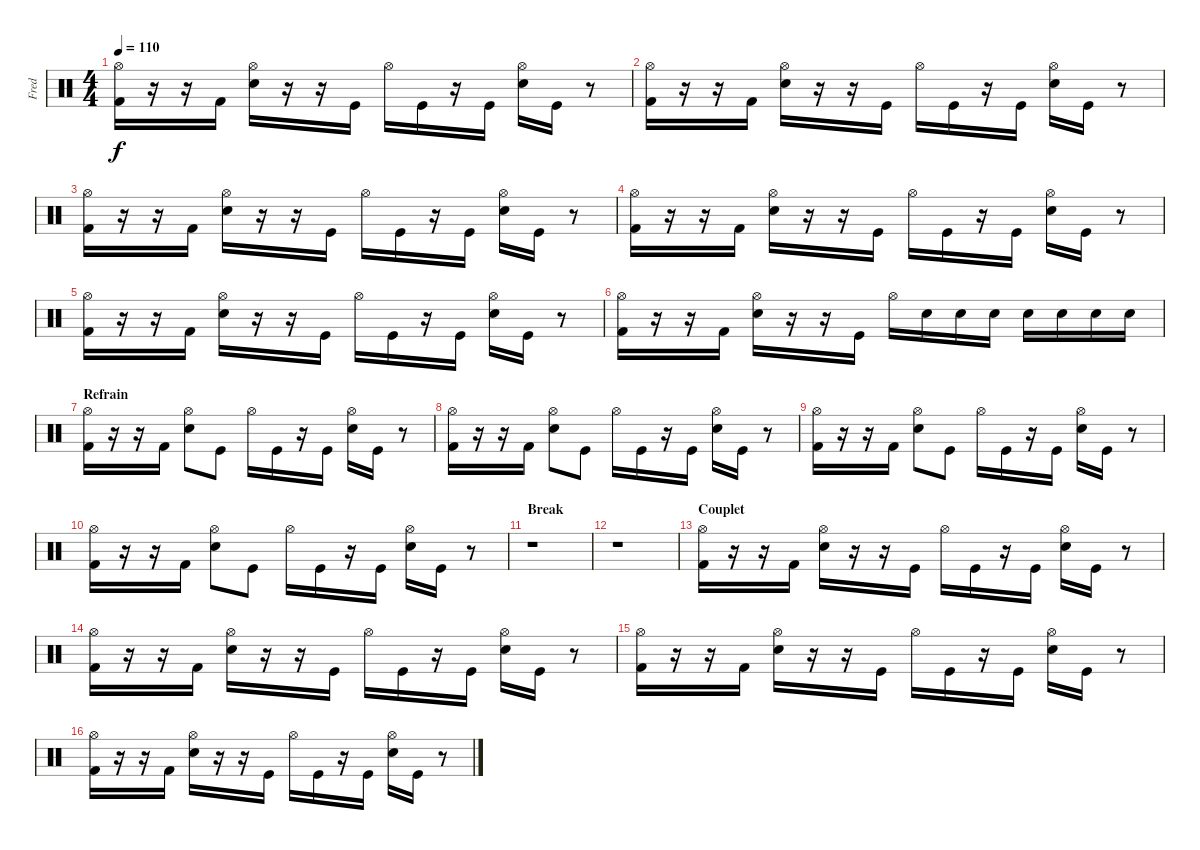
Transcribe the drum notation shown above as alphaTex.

\track ("Fred" "Fred") {instrument percussion}
\staff {score}
\articulation defaults
\ts (4 4)
\tempo 110
\clef neutral
\ks c
("Hi-Hat (open)" "Kick (hit) 2").16{dy f} r.16 r.16 "Kick (hit) 2".16 ("Hi-Hat (open)" "Electric Snare (hit)").16 r.16 r.16 "Kick (hit)".16 "Hi-Hat (open)".16 "Kick (hit)".16 r.16 "Kick (hit)".16 ("Hi-Hat (open)" "Electric Snare (hit)").16 "Kick (hit)".16 r.8 |
("Hi-Hat (open)" "Kick (hit) 2").16 r.16 r.16 "Kick (hit) 2".16 ("Hi-Hat (open)" "Electric Snare (hit)").16 r.16 r.16 "Kick (hit)".16 "Hi-Hat (open)".16 "Kick (hit)".16 r.16 "Kick (hit)".16 ("Hi-Hat (open)" "Electric Snare (hit)").16 "Kick (hit)".16 r.8 |
("Hi-Hat (open)" "Kick (hit) 2").16 r.16 r.16 "Kick (hit) 2".16 ("Hi-Hat (open)" "Electric Snare (hit)").16 r.16 r.16 "Kick (hit)".16 "Hi-Hat (open)".16 "Kick (hit)".16 r.16 "Kick (hit)".16 ("Hi-Hat (open)" "Electric Snare (hit)").16 "Kick (hit)".16 r.8 |
("Hi-Hat (open)" "Kick (hit) 2").16 r.16 r.16 "Kick (hit) 2".16 ("Hi-Hat (open)" "Electric Snare (hit)").16 r.16 r.16 "Kick (hit)".16 "Hi-Hat (open)".16 "Kick (hit)".16 r.16 "Kick (hit)".16 ("Hi-Hat (open)" "Electric Snare (hit)").16 "Kick (hit)".16 r.8 |
("Hi-Hat (open)" "Kick (hit) 2").16 r.16 r.16 "Kick (hit) 2".16 ("Hi-Hat (open)" "Electric Snare (hit)").16 r.16 r.16 "Kick (hit)".16 "Hi-Hat (open)".16 "Kick (hit)".16 r.16 "Kick (hit)".16 ("Hi-Hat (open)" "Electric Snare (hit)").16 "Kick (hit)".16 r.8 |
("Hi-Hat (open)" "Kick (hit) 2").16 r.16 r.16 "Kick (hit) 2".16 ("Hi-Hat (open)" "Electric Snare (hit)").16 r.16 r.16 "Kick (hit)".16 "Hi-Hat (open)".16 "Electric Snare (hit)".16 "Electric Snare (hit)".16 "Electric Snare (hit)".16 "Electric Snare (hit)".16 "Electric Snare (hit)".16 "Electric Snare (hit)".16 "Electric Snare (hit)".16 |
\section ("" "Refrain")
("Hi-Hat (open)" "Kick (hit) 2").16 r.16 r.16 "Kick (hit) 2".16 ("Hi-Hat (open)" "Electric Snare (hit)").8 "Kick (hit)".8 "Hi-Hat (open)".16 "Kick (hit)".16 r.16 "Kick (hit)".16 ("Hi-Hat (open)" "Electric Snare (hit)").16 "Kick (hit)".16 r.8 |
("Hi-Hat (open)" "Kick (hit) 2").16 r.16 r.16 "Kick (hit) 2".16 ("Hi-Hat (open)" "Electric Snare (hit)").8 "Kick (hit)".8 "Hi-Hat (open)".16 "Kick (hit)".16 r.16 "Kick (hit)".16 ("Hi-Hat (open)" "Electric Snare (hit)").16 "Kick (hit)".16 r.8 |
("Hi-Hat (open)" "Kick (hit) 2").16 r.16 r.16 "Kick (hit) 2".16 ("Hi-Hat (open)" "Electric Snare (hit)").8 "Kick (hit)".8 "Hi-Hat (open)".16 "Kick (hit)".16 r.16 "Kick (hit)".16 ("Hi-Hat (open)" "Electric Snare (hit)").16 "Kick (hit)".16 r.8 |
("Hi-Hat (open)" "Kick (hit) 2").16 r.16 r.16 "Kick (hit) 2".16 ("Hi-Hat (open)" "Electric Snare (hit)").8 "Kick (hit)".8 "Hi-Hat (open)".16 "Kick (hit)".16 r.16 "Kick (hit)".16 ("Hi-Hat (open)" "Electric Snare (hit)").16 "Kick (hit)".16 r.8 |
\section ("" "Break")
r.1 |
r.1 |
\section ("" "Couplet")
("Hi-Hat (open)" "Kick (hit) 2").16 r.16 r.16 "Kick (hit) 2".16 ("Hi-Hat (open)" "Electric Snare (hit)").16 r.16 r.16 "Kick (hit)".16 "Hi-Hat (open)".16 "Kick (hit)".16 r.16 "Kick (hit)".16 ("Hi-Hat (open)" "Electric Snare (hit)").16 "Kick (hit)".16 r.8 |
("Hi-Hat (open)" "Kick (hit) 2").16 r.16 r.16 "Kick (hit) 2".16 ("Hi-Hat (open)" "Electric Snare (hit)").16 r.16 r.16 "Kick (hit)".16 "Hi-Hat (open)".16 "Kick (hit)".16 r.16 "Kick (hit)".16 ("Hi-Hat (open)" "Electric Snare (hit)").16 "Kick (hit)".16 r.8 |
("Hi-Hat (open)" "Kick (hit) 2").16 r.16 r.16 "Kick (hit) 2".16 ("Hi-Hat (open)" "Electric Snare (hit)").16 r.16 r.16 "Kick (hit)".16 "Hi-Hat (open)".16 "Kick (hit)".16 r.16 "Kick (hit)".16 ("Hi-Hat (open)" "Electric Snare (hit)").16 "Kick (hit)".16 r.8 |
("Hi-Hat (open)" "Kick (hit) 2").16 r.16 r.16 "Kick (hit) 2".16 ("Hi-Hat (open)" "Electric Snare (hit)").16 r.16 r.16 "Kick (hit)".16 "Hi-Hat (open)".16 "Kick (hit)".16 r.16 "Kick (hit)".16 ("Hi-Hat (open)" "Electric Snare (hit)").16 "Kick (hit)".16 r.8
